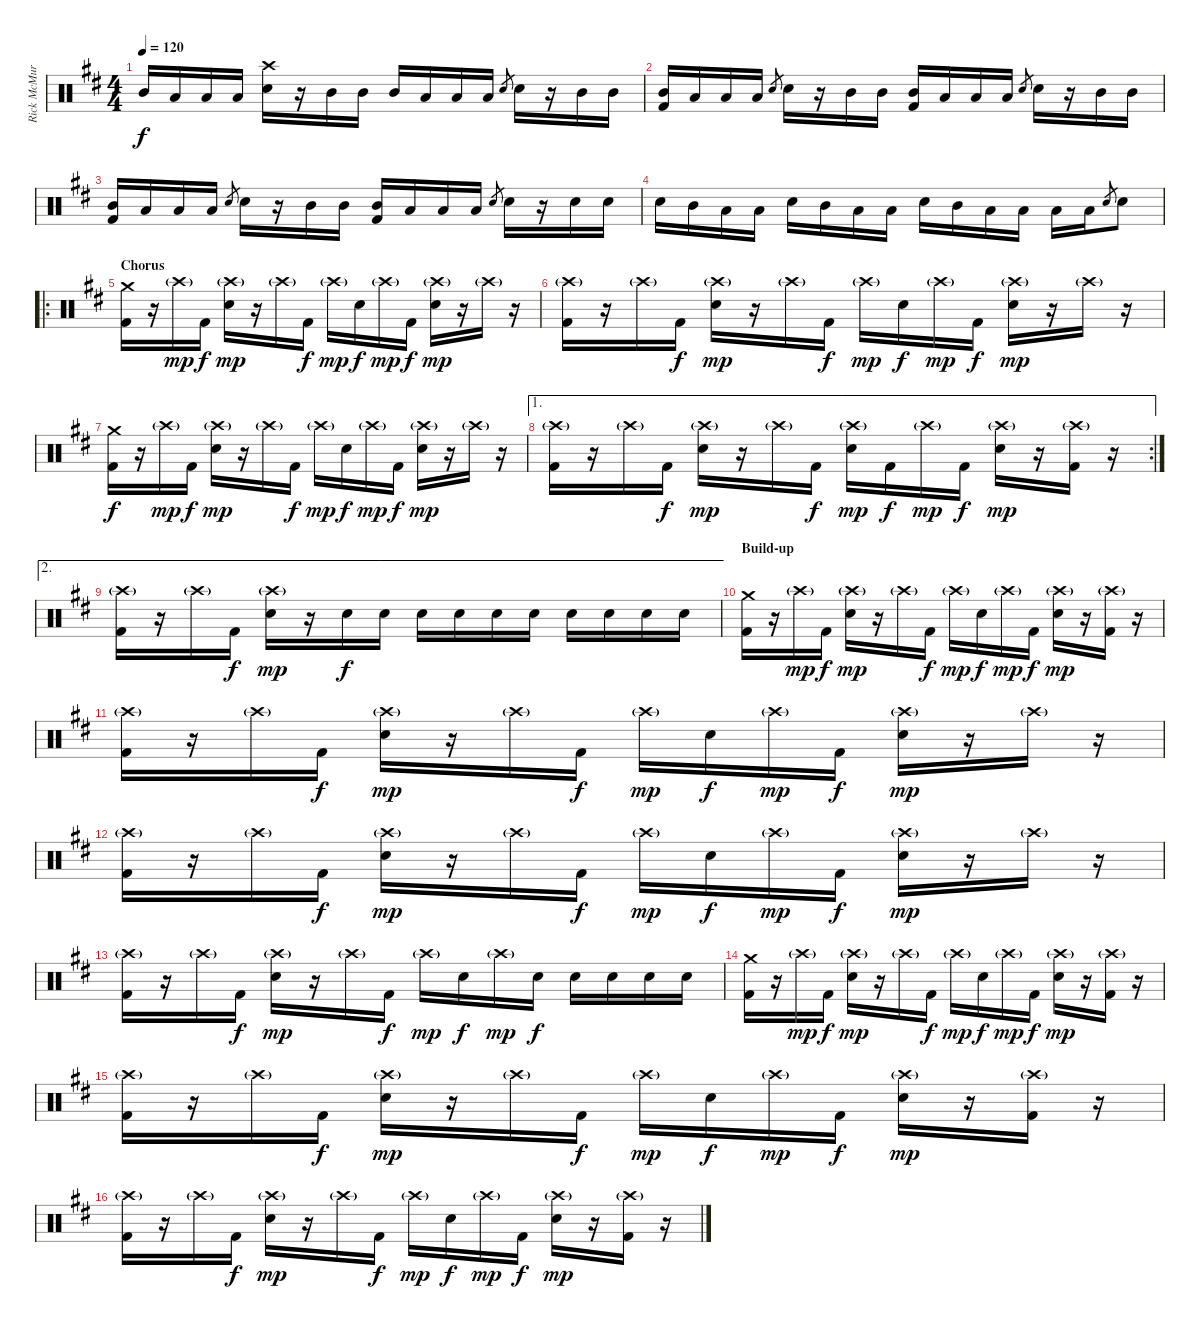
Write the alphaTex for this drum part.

\track ("Rick McMurray" "Rick McMur") {instrument percussion}
\staff {score}
\articulation defaults
\ts (4 4)
\tempo 120
\clef neutral
\ks d "Mid Tom (hit)".16{dy f} "Low Tom (hit)".16 "Low Floor Tom (hit)".16 "Low Floor Tom (hit)".16
("Crash high (hit)" "Snare (hit) 2").16 r.16 "Mid Tom (hit)".16 "Mid Tom (hit)".16 "Mid Tom (hit)".16 "Low Tom (hit)".16 "Low Floor Tom (hit)".16 "Low Floor Tom (hit)".16 "Snare (hit) 2".8{gr} "Snare (hit) 2".16 r.16 "Mid Tom (hit)".16 "Mid Tom (hit)".16 |
("Mid Tom (hit)" "Kick (hit) 2").16 "Low Tom (hit)".16 "Low Tom (hit)".16 "Low Floor Tom (hit)".16 "Snare (hit) 2".8{gr} "Snare (hit) 2".16 r.16 "Mid Tom (hit)".16 "Mid Tom (hit)".16 ("Mid Tom (hit)" "Kick (hit) 2").16 "Low Tom (hit)".16 "Low Floor Tom (hit)".16 "Low Floor Tom (hit)".16 "Snare (hit) 2".8{gr} "Snare (hit) 2".16 r.16 "Mid Tom (hit)".16 "Mid Tom (hit)".16 |
("Mid Tom (hit)" "Kick (hit) 2").16 "Low Tom (hit)".16 "Low Tom (hit)".16 "Low Floor Tom (hit)".16 "Snare (hit) 2".8{gr} "Snare (hit) 2".16 r.16 "Mid Tom (hit)".16 "Mid Tom (hit)".16 ("Mid Tom (hit)" "Kick (hit) 2").16 "Low Tom (hit)".16 "Low Floor Tom (hit)".16 "Low Floor Tom (hit)".16 "Snare (hit) 2".8{gr} "Snare (hit) 2".16 r.16 "Snare (hit) 2".16 "Snare (hit) 2".16 |
"Snare (hit) 2".16 "Mid Tom (hit)".16 "Low Tom (hit)".16 "Low Floor Tom (hit)".16 "Snare (hit) 2".16 "Mid Tom (hit)".16 "Low Tom (hit)".16 "Low Floor Tom (hit)".16 "Snare (hit) 2".16 "Mid Tom (hit)".16 "Low Tom (hit)".16 "Low Floor Tom (hit)".16 "Low Floor Tom (hit)".16 "Low Floor Tom (hit)".16 "Snare (hit) 2".8{gr} "Snare (hit) 2".8 |
\ro
\section ("" "Chorus")
("Crash medium (hit)" "Kick (hit) 2").16 r.16 "Crash high (hit)"{g}.16{dy mp} "Kick (hit) 2".16{dy f} ("Crash high (hit)"{g} "Snare (hit) 2").16{dy mp} r.16 "Crash high (hit)"{g}.16 "Kick (hit) 2".16{dy f} "Crash high (hit)"{g}.16{dy mp} "Snare (hit) 2".16{dy f} "Crash high (hit)"{g}.16{dy mp} "Kick (hit) 2".16{dy f} ("Crash high (hit)"{g} "Snare (hit) 2").16{dy mp} r.16 "Crash high (hit)"{g}.16 r.16 |
("Crash high (hit)"{g} "Kick (hit) 2").16 r.16 "Crash high (hit)"{g}.16 "Kick (hit) 2".16{dy f} ("Crash high (hit)"{g} "Snare (hit) 2").16{dy mp} r.16 "Crash high (hit)"{g}.16 "Kick (hit) 2".16{dy f} "Crash high (hit)"{g}.16{dy mp} "Snare (hit) 2".16{dy f} "Crash high (hit)"{g}.16{dy mp} "Kick (hit) 2".16{dy f} ("Crash high (hit)"{g} "Snare (hit) 2").16{dy mp} r.16 "Crash high (hit)"{g}.16 r.16 |
("Crash medium (hit)" "Kick (hit) 2").16{dy f} r.16 "Crash high (hit)"{g}.16{dy mp} "Kick (hit) 2".16{dy f} ("Crash high (hit)"{g} "Snare (hit) 2").16{dy mp} r.16 "Crash high (hit)"{g}.16 "Kick (hit) 2".16{dy f} "Crash high (hit)"{g}.16{dy mp} "Snare (hit) 2".16{dy f} "Crash high (hit)"{g}.16{dy mp} "Kick (hit) 2".16{dy f} ("Crash high (hit)"{g} "Snare (hit) 2").16{dy mp} r.16 "Crash high (hit)"{g}.16 r.16 |
\ae 1
\rc 2
("Crash high (hit)"{g} "Kick (hit) 2").16 r.16 "Crash high (hit)"{g}.16 "Kick (hit) 2".16{dy f} ("Crash high (hit)"{g} "Snare (hit) 2").16{dy mp} r.16 "Crash high (hit)"{g}.16 "Kick (hit) 2".16{dy f} ("Crash high (hit)"{g} "Snare (hit) 2").16{dy mp} "Kick (hit) 2".16{dy f} "Crash high (hit)"{g}.16{dy mp} "Kick (hit) 2".16{dy f} ("Crash high (hit)"{g} "Snare (hit) 2").16{dy mp} r.16 ("Crash high (hit)"{g} "Kick (hit) 2").16 r.16 |
\ae 2
("Crash high (hit)"{g} "Kick (hit) 2").16 r.16 "Crash high (hit)"{g}.16 "Kick (hit) 2".16{dy f} ("Crash high (hit)"{g} "Snare (hit) 2").16{dy mp} r.16 "Snare (hit) 2".16{dy f} "Snare (hit) 2".16 "Snare (hit) 2".16 "Snare (hit) 2".16 "Snare (hit) 2".16 "Snare (hit) 2".16 "Snare (hit) 2".16 "Snare (hit) 2".16 "Snare (hit) 2".16 "Snare (hit) 2".16 |
\section ("" "Build-up")
("Crash medium (hit)" "Kick (hit) 2").16 r.16 "Crash high (hit)"{g}.16{dy mp} "Kick (hit) 2".16{dy f} ("Crash high (hit)"{g} "Snare (hit) 2").16{dy mp} r.16 "Crash high (hit)"{g}.16 "Kick (hit) 2".16{dy f} "Crash high (hit)"{g}.16{dy mp} "Snare (hit) 2".16{dy f} "Crash high (hit)"{g}.16{dy mp} "Kick (hit) 2".16{dy f} ("Crash high (hit)"{g} "Snare (hit) 2").16{dy mp} r.16 ("Crash high (hit)"{g} "Kick (hit) 2").16 r.16 |
("Crash high (hit)"{g} "Kick (hit) 2").16 r.16 "Crash high (hit)"{g}.16 "Kick (hit) 2".16{dy f} ("Crash high (hit)"{g} "Snare (hit) 2").16{dy mp} r.16 "Crash high (hit)"{g}.16 "Kick (hit) 2".16{dy f} "Crash high (hit)"{g}.16{dy mp} "Snare (hit) 2".16{dy f} "Crash high (hit)"{g}.16{dy mp} "Kick (hit) 2".16{dy f} ("Crash high (hit)"{g} "Snare (hit) 2").16{dy mp} r.16 "Crash high (hit)"{g}.16 r.16 |
("Crash high (hit)"{g} "Kick (hit) 2").16 r.16 "Crash high (hit)"{g}.16 "Kick (hit) 2".16{dy f} ("Crash high (hit)"{g} "Snare (hit) 2").16{dy mp} r.16 "Crash high (hit)"{g}.16 "Kick (hit) 2".16{dy f} "Crash high (hit)"{g}.16{dy mp} "Snare (hit) 2".16{dy f} "Crash high (hit)"{g}.16{dy mp} "Kick (hit) 2".16{dy f} ("Crash high (hit)"{g} "Snare (hit) 2").16{dy mp} r.16 "Crash high (hit)"{g}.16 r.16 |
("Crash high (hit)"{g} "Kick (hit) 2").16 r.16 "Crash high (hit)"{g}.16 "Kick (hit) 2".16{dy f} ("Crash high (hit)"{g} "Snare (hit) 2").16{dy mp} r.16 "Crash high (hit)"{g}.16 "Kick (hit) 2".16{dy f} "Crash high (hit)"{g}.16{dy mp} "Snare (hit) 2".16{dy f} "Crash high (hit)"{g}.16{dy mp} "Snare (hit) 2".16{dy f} "Snare (hit) 2".16 "Snare (hit) 2".16 "Snare (hit) 2".16 "Snare (hit) 2".16 |
("Crash medium (hit)" "Kick (hit) 2").16 r.16 "Crash high (hit)"{g}.16{dy mp} "Kick (hit) 2".16{dy f} ("Crash high (hit)"{g} "Snare (hit) 2").16{dy mp} r.16 "Crash high (hit)"{g}.16 "Kick (hit) 2".16{dy f} "Crash high (hit)"{g}.16{dy mp} "Snare (hit) 2".16{dy f} "Crash high (hit)"{g}.16{dy mp} "Kick (hit) 2".16{dy f} ("Crash high (hit)"{g} "Snare (hit) 2").16{dy mp} r.16 ("Crash high (hit)"{g} "Kick (hit) 2").16 r.16 |
("Crash high (hit)"{g} "Kick (hit) 2").16 r.16 "Crash high (hit)"{g}.16 "Kick (hit) 2".16{dy f} ("Crash high (hit)"{g} "Snare (hit) 2").16{dy mp} r.16 "Crash high (hit)"{g}.16 "Kick (hit) 2".16{dy f} "Crash high (hit)"{g}.16{dy mp} "Snare (hit) 2".16{dy f} "Crash high (hit)"{g}.16{dy mp} "Kick (hit) 2".16{dy f} ("Crash high (hit)"{g} "Snare (hit) 2").16{dy mp} r.16 ("Crash high (hit)"{g} "Kick (hit) 2").16 r.16 |
("Crash high (hit)"{g} "Kick (hit) 2").16 r.16 "Crash high (hit)"{g}.16 "Kick (hit) 2".16{dy f} ("Crash high (hit)"{g} "Snare (hit) 2").16{dy mp} r.16 "Crash high (hit)"{g}.16 "Kick (hit) 2".16{dy f} "Crash high (hit)"{g}.16{dy mp} "Snare (hit) 2".16{dy f} "Crash high (hit)"{g}.16{dy mp} "Kick (hit) 2".16{dy f} ("Crash high (hit)"{g} "Snare (hit) 2").16{dy mp} r.16 ("Crash high (hit)"{g} "Kick (hit) 2").16 r.16
